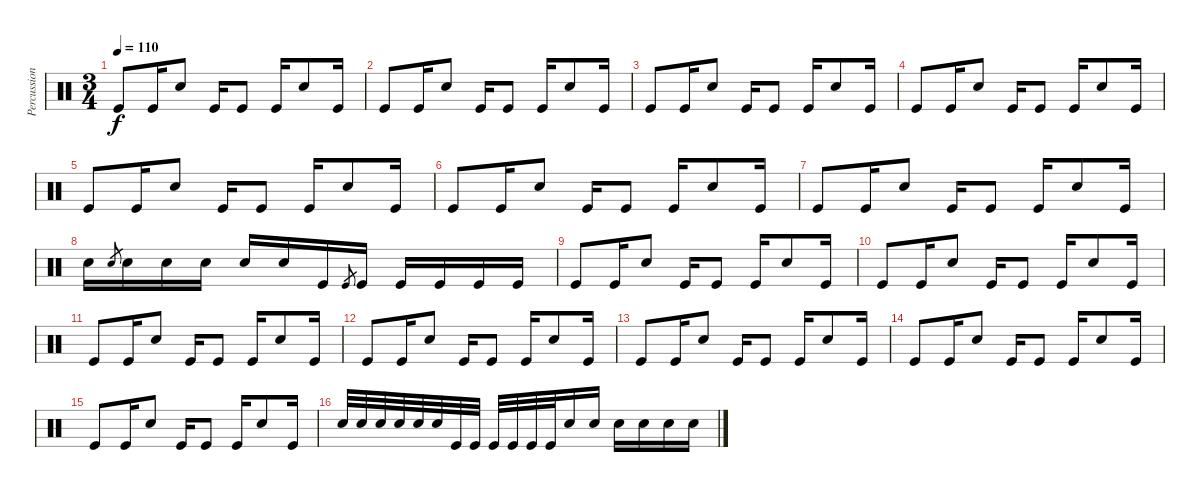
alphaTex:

\track ("Percussion" "Percussion") {instrument percussion}
\staff {score}
\articulation defaults
\ts (3 4)
\tempo 110
\clef neutral
\ks c "Kick (hit)".8{dy f} "Kick (hit)".16 "Snare (hit) 2".8 "Kick (hit)".16 "Kick (hit)".8 "Kick (hit)".16 "Snare (hit) 2".8 "Kick (hit)".16
|
"Kick (hit)".8 "Kick (hit)".16 "Snare (hit) 2".8 "Kick (hit)".16 "Kick (hit)".8 "Kick (hit)".16 "Snare (hit) 2".8 "Kick (hit)".16 |
"Kick (hit)".8 "Kick (hit)".16 "Snare (hit) 2".8 "Kick (hit)".16 "Kick (hit)".8 "Kick (hit)".16 "Snare (hit) 2".8 "Kick (hit)".16 |
"Kick (hit)".8 "Kick (hit)".16 "Snare (hit) 2".8 "Kick (hit)".16 "Kick (hit)".8 "Kick (hit)".16 "Snare (hit) 2".8 "Kick (hit)".16 |
"Kick (hit)".8 "Kick (hit)".16 "Snare (hit) 2".8 "Kick (hit)".16 "Kick (hit)".8 "Kick (hit)".16 "Snare (hit) 2".8 "Kick (hit)".16 |
"Kick (hit)".8 "Kick (hit)".16 "Snare (hit) 2".8 "Kick (hit)".16 "Kick (hit)".8 "Kick (hit)".16 "Snare (hit) 2".8 "Kick (hit)".16 |
"Kick (hit)".8 "Kick (hit)".16 "Snare (hit) 2".8 "Kick (hit)".16 "Kick (hit)".8 "Kick (hit)".16 "Snare (hit) 2".8 "Kick (hit)".16 |
"Snare (hit) 2".16 "Snare (hit) 2".8{gr} "Snare (hit) 2".16 "Snare (hit) 2".16 "Snare (hit) 2".16 "Snare (hit) 2".16 "Snare (hit) 2".16 "Kick (hit)".16 "Kick (hit)".8{gr} "Kick (hit)".16 "Kick (hit)".16 "Kick (hit)".16 "Kick (hit)".16 "Kick (hit)".16 |
"Kick (hit)".8 "Kick (hit)".16 "Snare (hit) 2".8 "Kick (hit)".16 "Kick (hit)".8 "Kick (hit)".16 "Snare (hit) 2".8 "Kick (hit)".16 |
"Kick (hit)".8 "Kick (hit)".16 "Snare (hit) 2".8 "Kick (hit)".16 "Kick (hit)".8 "Kick (hit)".16 "Snare (hit) 2".8 "Kick (hit)".16 |
"Kick (hit)".8 "Kick (hit)".16 "Snare (hit) 2".8 "Kick (hit)".16 "Kick (hit)".8 "Kick (hit)".16 "Snare (hit) 2".8 "Kick (hit)".16 |
"Kick (hit)".8 "Kick (hit)".16 "Snare (hit) 2".8 "Kick (hit)".16 "Kick (hit)".8 "Kick (hit)".16 "Snare (hit) 2".8 "Kick (hit)".16 |
"Kick (hit)".8 "Kick (hit)".16 "Snare (hit) 2".8 "Kick (hit)".16 "Kick (hit)".8 "Kick (hit)".16 "Snare (hit) 2".8 "Kick (hit)".16 |
"Kick (hit)".8 "Kick (hit)".16 "Snare (hit) 2".8 "Kick (hit)".16 "Kick (hit)".8 "Kick (hit)".16 "Snare (hit) 2".8 "Kick (hit)".16 |
"Kick (hit)".8 "Kick (hit)".16 "Snare (hit) 2".8 "Kick (hit)".16 "Kick (hit)".8 "Kick (hit)".16 "Snare (hit) 2".8 "Kick (hit)".16 |
"Snare (hit) 2".32 "Snare (hit) 2".32 "Snare (hit) 2".32 "Snare (hit) 2".32 "Snare (hit) 2".32 "Snare (hit) 2".32 "Kick (hit)".32 "Kick (hit)".32 "Kick (hit)".32 "Kick (hit)".32 "Kick (hit)".32 "Kick (hit)".32 "Snare (hit) 2".16 "Snare (hit) 2".16 "Snare (hit) 2".16 "Snare (hit) 2".16 "Snare (hit) 2".16 "Snare (hit) 2".16
